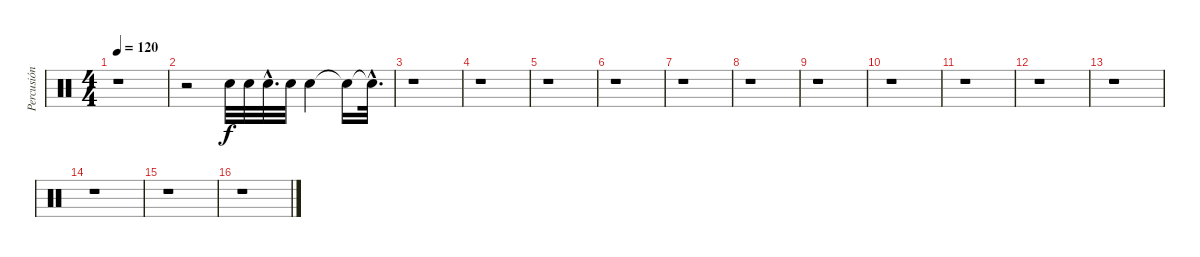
\track ("Percusión" "Percusión") {instrument percussion}
\staff {score}
\articulation defaults
\ts (4 4)
\tempo 120
\clef neutral
\ks c
r.1{dy f} |
r.2 "Snare (hit) 2".32 "Snare (hit) 2".32 "Snare (hit) 2"{hac}.32{d} "Snare (hit) 2".32 "Snare (hit) 2".4 "Snare (hit)"{t}.16 "Snare (hit)"{hac t}.32{d} |
r.1 |
r.1 |
r.1 |
r.1 |
r.1 |
r.1 |
r.1 |
r.1 |
r.1 |
r.1 |
r.1 |
r.1 |
r.1 |
r.1
